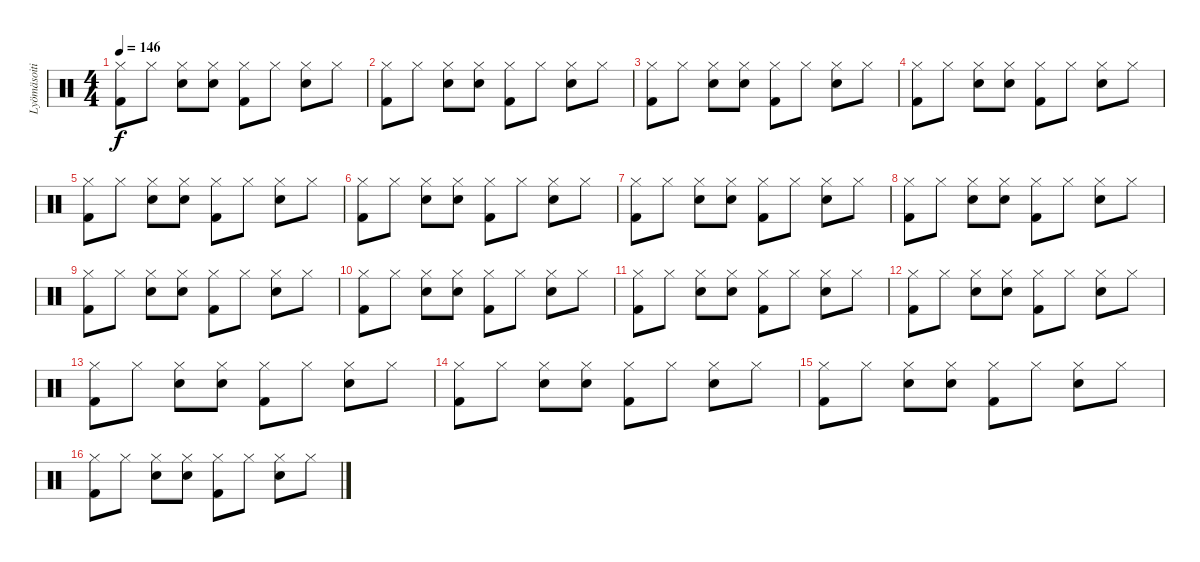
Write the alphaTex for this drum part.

\track ("Lyömäsoitin" "Lyömäsoiti") {instrument percussion}
\staff {score}
\articulation defaults
\ts (4 4)
\tempo 146
\clef neutral
\ks c
("Hi-Hat (closed)" "Kick (hit) 2").8{dy f} "Hi-Hat (closed)".8 ("Hi-Hat (closed)" "Electric Snare (hit)").8 ("Hi-Hat (closed)" "Electric Snare (hit)").8 ("Hi-Hat (closed)" "Kick (hit) 2").8 "Hi-Hat (closed)".8 ("Hi-Hat (closed)" "Electric Snare (hit)").8 "Hi-Hat (closed)".8 |
("Hi-Hat (closed)" "Kick (hit) 2").8 "Hi-Hat (closed)".8 ("Hi-Hat (closed)" "Electric Snare (hit)").8 ("Hi-Hat (closed)" "Electric Snare (hit)").8 ("Hi-Hat (closed)" "Kick (hit) 2").8 "Hi-Hat (closed)".8 ("Hi-Hat (closed)" "Electric Snare (hit)").8 "Hi-Hat (closed)".8 |
("Hi-Hat (closed)" "Kick (hit) 2").8 "Hi-Hat (closed)".8 ("Hi-Hat (closed)" "Electric Snare (hit)").8 ("Hi-Hat (closed)" "Electric Snare (hit)").8 ("Hi-Hat (closed)" "Kick (hit) 2").8 "Hi-Hat (closed)".8 ("Hi-Hat (closed)" "Electric Snare (hit)").8 "Hi-Hat (closed)".8 |
("Hi-Hat (closed)" "Kick (hit) 2").8 "Hi-Hat (closed)".8 ("Hi-Hat (closed)" "Electric Snare (hit)").8 ("Hi-Hat (closed)" "Electric Snare (hit)").8 ("Hi-Hat (closed)" "Kick (hit) 2").8 "Hi-Hat (closed)".8 ("Hi-Hat (closed)" "Electric Snare (hit)").8 "Hi-Hat (closed)".8 |
("Hi-Hat (closed)" "Kick (hit) 2").8 "Hi-Hat (closed)".8 ("Hi-Hat (closed)" "Electric Snare (hit)").8 ("Hi-Hat (closed)" "Electric Snare (hit)").8 ("Hi-Hat (closed)" "Kick (hit) 2").8 "Hi-Hat (closed)".8 ("Hi-Hat (closed)" "Electric Snare (hit)").8 "Hi-Hat (closed)".8 |
("Hi-Hat (closed)" "Kick (hit) 2").8 "Hi-Hat (closed)".8 ("Hi-Hat (closed)" "Electric Snare (hit)").8 ("Hi-Hat (closed)" "Electric Snare (hit)").8 ("Hi-Hat (closed)" "Kick (hit) 2").8 "Hi-Hat (closed)".8 ("Hi-Hat (closed)" "Electric Snare (hit)").8 "Hi-Hat (closed)".8 |
("Hi-Hat (closed)" "Kick (hit) 2").8 "Hi-Hat (closed)".8 ("Hi-Hat (closed)" "Electric Snare (hit)").8 ("Hi-Hat (closed)" "Electric Snare (hit)").8 ("Hi-Hat (closed)" "Kick (hit) 2").8 "Hi-Hat (closed)".8 ("Hi-Hat (closed)" "Electric Snare (hit)").8 "Hi-Hat (closed)".8 |
("Hi-Hat (closed)" "Kick (hit) 2").8 "Hi-Hat (closed)".8 ("Hi-Hat (closed)" "Electric Snare (hit)").8 ("Hi-Hat (closed)" "Electric Snare (hit)").8 ("Hi-Hat (closed)" "Kick (hit) 2").8 "Hi-Hat (closed)".8 ("Hi-Hat (closed)" "Electric Snare (hit)").8 "Hi-Hat (closed)".8 |
("Hi-Hat (closed)" "Kick (hit) 2").8 "Hi-Hat (closed)".8 ("Hi-Hat (closed)" "Electric Snare (hit)").8 ("Hi-Hat (closed)" "Electric Snare (hit)").8 ("Hi-Hat (closed)" "Kick (hit) 2").8 "Hi-Hat (closed)".8 ("Hi-Hat (closed)" "Electric Snare (hit)").8 "Hi-Hat (closed)".8 |
("Hi-Hat (closed)" "Kick (hit) 2").8 "Hi-Hat (closed)".8 ("Hi-Hat (closed)" "Electric Snare (hit)").8 ("Hi-Hat (closed)" "Electric Snare (hit)").8 ("Hi-Hat (closed)" "Kick (hit) 2").8 "Hi-Hat (closed)".8 ("Hi-Hat (closed)" "Electric Snare (hit)").8 "Hi-Hat (closed)".8 |
("Hi-Hat (closed)" "Kick (hit) 2").8 "Hi-Hat (closed)".8 ("Hi-Hat (closed)" "Electric Snare (hit)").8 ("Hi-Hat (closed)" "Electric Snare (hit)").8 ("Hi-Hat (closed)" "Kick (hit) 2").8 "Hi-Hat (closed)".8 ("Hi-Hat (closed)" "Electric Snare (hit)").8 "Hi-Hat (closed)".8 |
("Hi-Hat (closed)" "Kick (hit) 2").8 "Hi-Hat (closed)".8 ("Hi-Hat (closed)" "Electric Snare (hit)").8 ("Hi-Hat (closed)" "Electric Snare (hit)").8 ("Hi-Hat (closed)" "Kick (hit) 2").8 "Hi-Hat (closed)".8 ("Hi-Hat (closed)" "Electric Snare (hit)").8 "Hi-Hat (closed)".8 |
("Hi-Hat (closed)" "Kick (hit) 2").8 "Hi-Hat (closed)".8 ("Hi-Hat (closed)" "Electric Snare (hit)").8 ("Hi-Hat (closed)" "Electric Snare (hit)").8 ("Hi-Hat (closed)" "Kick (hit) 2").8 "Hi-Hat (closed)".8 ("Hi-Hat (closed)" "Electric Snare (hit)").8 "Hi-Hat (closed)".8 |
("Hi-Hat (closed)" "Kick (hit) 2").8 "Hi-Hat (closed)".8 ("Hi-Hat (closed)" "Electric Snare (hit)").8 ("Hi-Hat (closed)" "Electric Snare (hit)").8 ("Hi-Hat (closed)" "Kick (hit) 2").8 "Hi-Hat (closed)".8 ("Hi-Hat (closed)" "Electric Snare (hit)").8 "Hi-Hat (closed)".8 |
("Hi-Hat (closed)" "Kick (hit) 2").8 "Hi-Hat (closed)".8 ("Hi-Hat (closed)" "Electric Snare (hit)").8 ("Hi-Hat (closed)" "Electric Snare (hit)").8 ("Hi-Hat (closed)" "Kick (hit) 2").8 "Hi-Hat (closed)".8 ("Hi-Hat (closed)" "Electric Snare (hit)").8 "Hi-Hat (closed)".8 |
("Hi-Hat (closed)" "Kick (hit) 2").8 "Hi-Hat (closed)".8 ("Hi-Hat (closed)" "Electric Snare (hit)").8 ("Hi-Hat (closed)" "Electric Snare (hit)").8 ("Hi-Hat (closed)" "Kick (hit) 2").8 "Hi-Hat (closed)".8 ("Hi-Hat (closed)" "Electric Snare (hit)").8 "Hi-Hat (closed)".8
